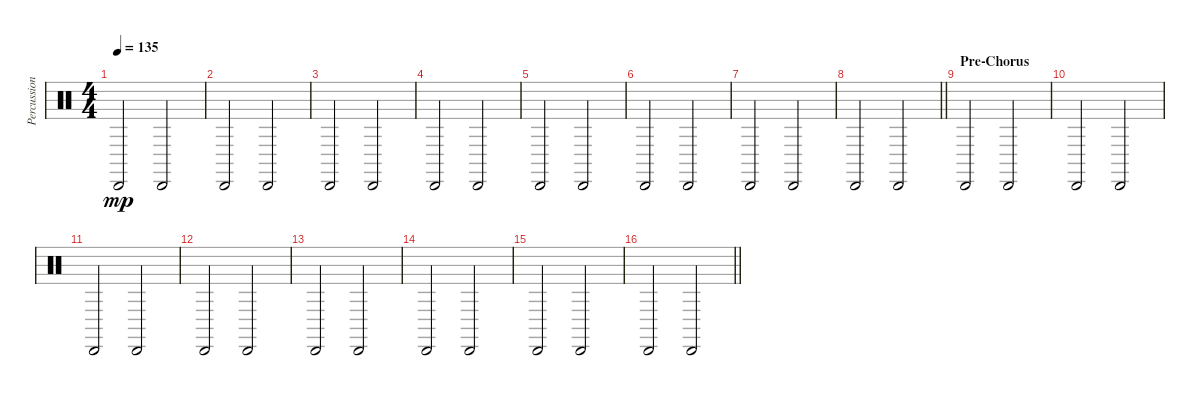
\track ("Percussion" "Percussion") {instrument percussion}
\staff {score}
\articulation defaults
\ts (4 4)
\tempo 135
\clef neutral
\ks c "Cabasa (hit)".2{dy mp} "Cabasa (hit)".2
|
"Cabasa (hit)".2 "Cabasa (hit)".2 |
"Cabasa (hit)".2 "Cabasa (hit)".2 |
"Cabasa (hit)".2 "Cabasa (hit)".2 |
"Cabasa (hit)".2 "Cabasa (hit)".2 |
"Cabasa (hit)".2 "Cabasa (hit)".2 |
"Cabasa (hit)".2 "Cabasa (hit)".2 |
\barLineRight lightlight "Cabasa (hit)".2 "Cabasa (hit)".2
|
\section ("" "Pre-Chorus")
"Cabasa (hit)".2 "Cabasa (hit)".2 |
"Cabasa (hit)".2 "Cabasa (hit)".2 |
"Cabasa (hit)".2 "Cabasa (hit)".2 |
"Cabasa (hit)".2 "Cabasa (hit)".2 |
"Cabasa (hit)".2 "Cabasa (hit)".2 |
"Cabasa (hit)".2 "Cabasa (hit)".2 |
"Cabasa (hit)".2 "Cabasa (hit)".2 |
\barLineRight lightlight "Cabasa (hit)".2 "Cabasa (hit)".2
